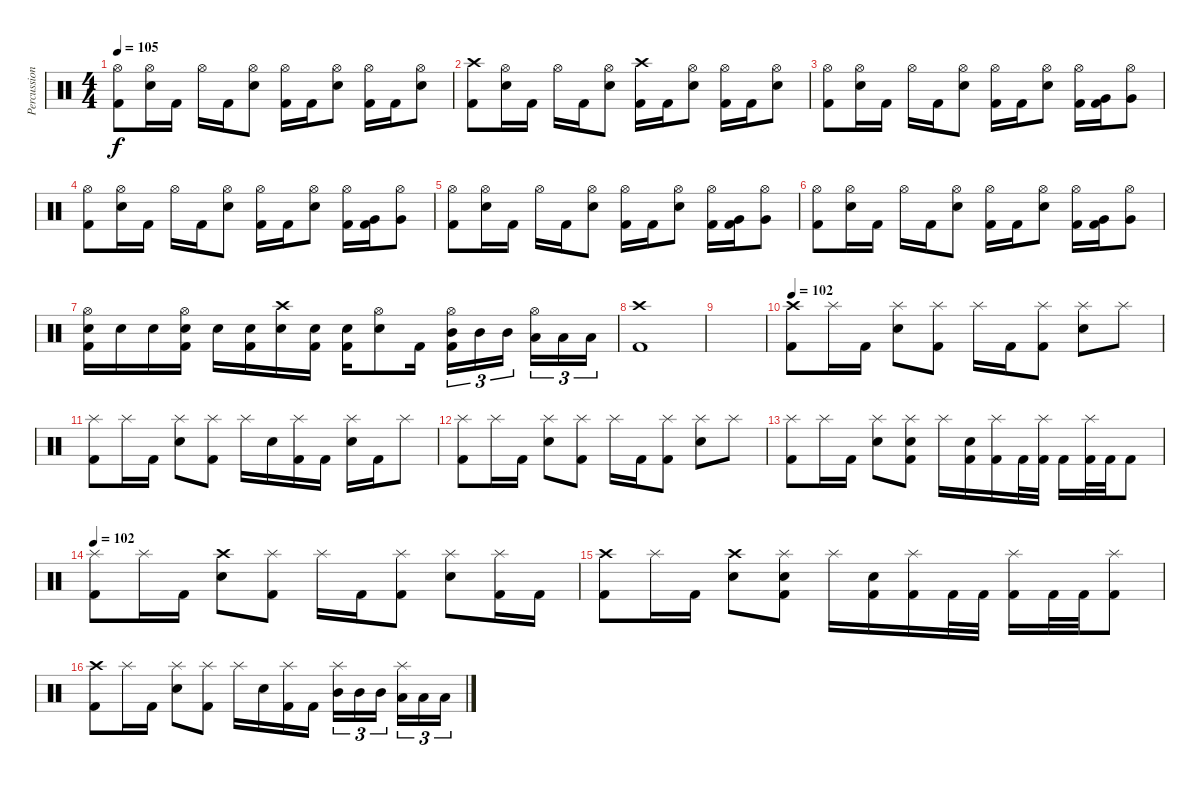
\track ("Percussions" "Percussion") {instrument percussion}
\staff {score}
\articulation defaults
\ts (4 4)
\tempo 105
\clef neutral
\ks c
("Hi-Hat (open)" "Kick (hit) 2").8{dy f} ("Hi-Hat (open)" "Electric Snare (hit)").16 "Kick (hit) 2".16 "Hi-Hat (open)".16 "Kick (hit) 2".16 ("Hi-Hat (open)" "Electric Snare (hit)").8 ("Hi-Hat (open)" "Kick (hit) 2").16 "Kick (hit) 2".16 ("Hi-Hat (open)" "Electric Snare (hit)").8 ("Hi-Hat (open)" "Kick (hit) 2").16 "Kick (hit) 2".16 ("Hi-Hat (open)" "Electric Snare (hit)").8 |
("Crash high (hit)" "Kick (hit) 2").8 ("Hi-Hat (open)" "Electric Snare (hit)").16 "Kick (hit) 2".16 "Hi-Hat (open)".16 "Kick (hit) 2".16 ("Hi-Hat (open)" "Electric Snare (hit)").8 ("Crash high (hit)" "Kick (hit) 2").16 "Kick (hit) 2".16 ("Hi-Hat (open)" "Electric Snare (hit)").8 ("Hi-Hat (open)" "Kick (hit) 2").16 "Kick (hit) 2".16 ("Hi-Hat (open)" "Electric Snare (hit)").8 |
("Hi-Hat (open)" "Kick (hit) 2").8 ("Hi-Hat (open)" "Electric Snare (hit)").16 "Kick (hit) 2".16 "Hi-Hat (open)".16 "Kick (hit) 2".16 ("Hi-Hat (open)" "Electric Snare (hit)").8 ("Hi-Hat (open)" "Kick (hit) 2").16 "Kick (hit) 2".16 ("Hi-Hat (open)" "Electric Snare (hit)").8 ("Hi-Hat (open)" "Kick (hit) 2").16 ("Very Low Tom (hit)" "Kick (hit) 2").16 ("Hi-Hat (open)" "Very Low Tom (hit)").8 |
("Hi-Hat (open)" "Kick (hit) 2").8 ("Hi-Hat (open)" "Electric Snare (hit)").16 "Kick (hit) 2".16 "Hi-Hat (open)".16 "Kick (hit) 2".16 ("Hi-Hat (open)" "Electric Snare (hit)").8 ("Hi-Hat (open)" "Kick (hit) 2").16 "Kick (hit) 2".16 ("Hi-Hat (open)" "Electric Snare (hit)").8 ("Hi-Hat (open)" "Kick (hit) 2").16 ("Very Low Tom (hit)" "Kick (hit) 2").16 ("Hi-Hat (open)" "Very Low Tom (hit)").8 |
("Hi-Hat (open)" "Kick (hit) 2").8 ("Hi-Hat (open)" "Electric Snare (hit)").16 "Kick (hit) 2".16 "Hi-Hat (open)".16 "Kick (hit) 2".16 ("Hi-Hat (open)" "Electric Snare (hit)").8 ("Hi-Hat (open)" "Kick (hit) 2").16 "Kick (hit) 2".16 ("Hi-Hat (open)" "Electric Snare (hit)").8 ("Hi-Hat (open)" "Kick (hit) 2").16 ("Very Low Tom (hit)" "Kick (hit) 2").16 ("Hi-Hat (open)" "Very Low Tom (hit)").8 |
("Hi-Hat (open)" "Kick (hit) 2").8 ("Hi-Hat (open)" "Electric Snare (hit)").16 "Kick (hit) 2".16 "Hi-Hat (open)".16 "Kick (hit) 2".16 ("Hi-Hat (open)" "Electric Snare (hit)").8 ("Hi-Hat (open)" "Kick (hit) 2").16 "Kick (hit) 2".16 ("Hi-Hat (open)" "Electric Snare (hit)").8 ("Hi-Hat (open)" "Kick (hit) 2").16 ("Very Low Tom (hit)" "Kick (hit) 2").16 ("Hi-Hat (open)" "Very Low Tom (hit)").8 |
("Hi-Hat (open)" "Electric Snare (hit)" "Kick (hit) 2").16 "Electric Snare (hit)".16 "Electric Snare (hit)".16 ("Hi-Hat (open)" "Electric Snare (hit)" "Kick (hit) 2").16 "Electric Snare (hit)".16 ("Electric Snare (hit)" "Kick (hit) 2").16 ("Crash high (hit)" "Electric Snare (hit)").16 ("Electric Snare (hit)" "Kick (hit) 2").16 ("Electric Snare (hit)" "Kick (hit) 2").16 ("Hi-Hat (open)" "Electric Snare (hit)").8 "Kick (hit) 2".16 ("Hi-Hat (open)" "Mid Tom (hit)" "Kick (hit) 2").16{tu (3 2)} "Mid Tom (hit)".16{tu (3 2)} "Mid Tom (hit)".16{tu (3 2)} ("Hi-Hat (open)" "Low Tom (hit)").16{tu (3 2)} "Low Tom (hit)".16{tu (3 2)} "Low Tom (hit)".16{tu (3 2)} |
("Crash high (hit)" "Kick (hit) 2").1 |
|
\tempo 102
("Crash high (hit)" "Kick (hit) 2").8 "Splash (hit)".16 "Kick (hit) 2".16 ("Splash (hit)" "Electric Snare (hit)").8 ("Splash (hit)" "Kick (hit) 2").8 "Splash (hit)".16 "Kick (hit) 2".16 ("Splash (hit)" "Kick (hit) 2").8 ("Splash (hit)" "Electric Snare (hit)").8 "Splash (hit)".8 |
("Splash (hit)" "Kick (hit) 2").8 "Splash (hit)".16 "Kick (hit) 2".16 ("Splash (hit)" "Electric Snare (hit)").8 ("Splash (hit)" "Kick (hit) 2").8 "Splash (hit)".16 "Electric Snare (hit)".16 ("Splash (hit)" "Kick (hit) 2").16 "Kick (hit) 2".16 ("Splash (hit)" "Electric Snare (hit)").16 "Kick (hit) 2".16 "Splash (hit)".8 |
("Splash (hit)" "Kick (hit) 2").8 "Splash (hit)".16 "Kick (hit) 2".16 ("Splash (hit)" "Electric Snare (hit)").8 ("Splash (hit)" "Kick (hit) 2").8 "Splash (hit)".16 "Kick (hit) 2".16 ("Splash (hit)" "Kick (hit) 2").8 ("Splash (hit)" "Electric Snare (hit)").8 "Splash (hit)".8 |
("Splash (hit)" "Kick (hit) 2").8 "Splash (hit)".16 "Kick (hit) 2".16 ("Splash (hit)" "Electric Snare (hit)").8 ("Splash (hit)" "Electric Snare (hit)" "Kick (hit) 2").8 "Splash (hit)".16 ("Electric Snare (hit)" "Kick (hit) 2").16 ("Splash (hit)" "Kick (hit) 2").16 "Kick (hit) 2".32 ("Splash (hit)" "Kick (hit) 2").32 "Kick (hit) 2".16 ("Splash (hit)" "Kick (hit) 2").32 "Kick (hit) 2".32 "Kick (hit) 2".8 |
\tempo 102
("Splash (hit)" "Kick (hit) 2").8 "Splash (hit)".16 "Kick (hit) 2".16 ("Crash high (hit)" "Electric Snare (hit)").8 ("Splash (hit)" "Kick (hit) 2").8 "Splash (hit)".16 "Kick (hit) 2".16 ("Splash (hit)" "Kick (hit) 2").8 ("Splash (hit)" "Electric Snare (hit)").8 ("Splash (hit)" "Kick (hit) 2").16 "Kick (hit) 2".16 |
("Crash high (hit)" "Kick (hit) 2").8 "Splash (hit)".16 "Kick (hit) 2".16 ("Crash high (hit)" "Electric Snare (hit)").8 ("Splash (hit)" "Electric Snare (hit)" "Kick (hit) 2").8 "Splash (hit)".16 ("Electric Snare (hit)" "Kick (hit) 2").16 ("Splash (hit)" "Kick (hit) 2").16 "Kick (hit) 2".32 "Kick (hit) 2".32 ("Splash (hit)" "Kick (hit) 2").16 "Kick (hit) 2".32 "Kick (hit) 2".32 ("Splash (hit)" "Kick (hit) 2").8 |
("Crash high (hit)" "Kick (hit) 2").8 "Splash (hit)".16 "Kick (hit) 2".16 ("Splash (hit)" "Electric Snare (hit)").8 ("Splash (hit)" "Kick (hit) 2").8 "Splash (hit)".16 "Electric Snare (hit)".16 ("Splash (hit)" "Kick (hit) 2").16 "Kick (hit) 2".16 ("Splash (hit)" "Mid Tom (hit)").16{tu (3 2)} "Mid Tom (hit)".16{tu (3 2)} "Mid Tom (hit)".16{tu (3 2)} ("Splash (hit)" "Low Tom (hit)").16{tu (3 2)} "Low Tom (hit)".16{tu (3 2)} "Low Tom (hit)".16{tu (3 2)}
